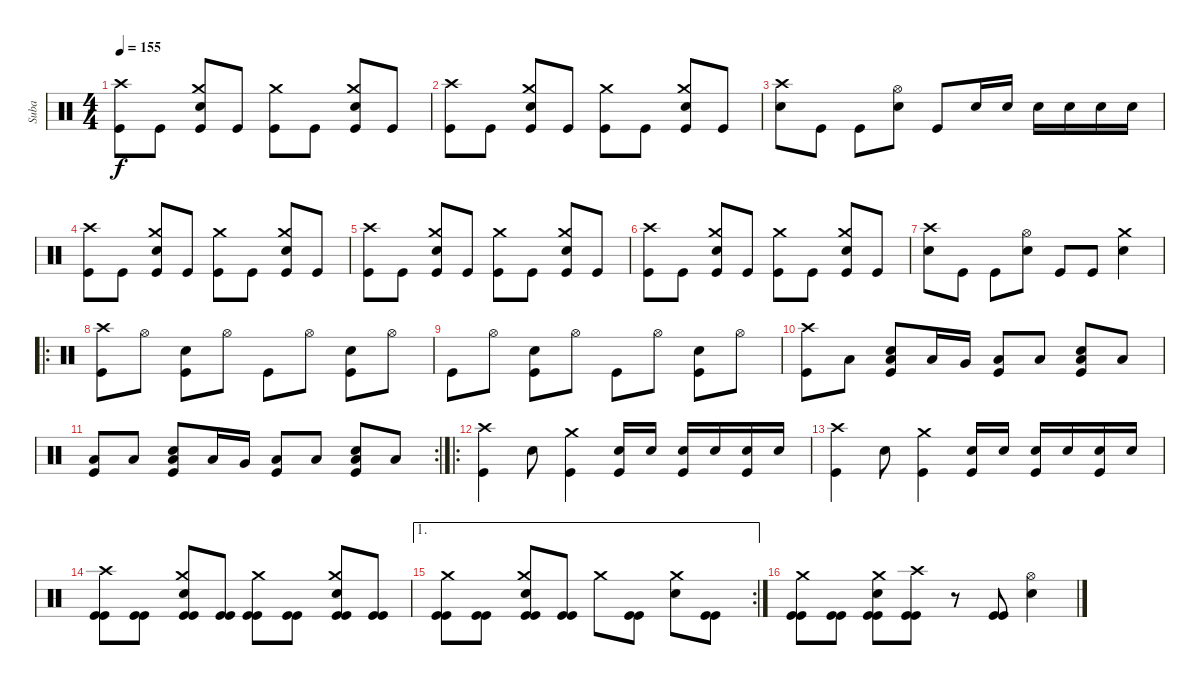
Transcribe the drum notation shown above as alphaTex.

\track ("Suba" "Suba") {instrument percussion}
\staff {score}
\articulation defaults
\ts (4 4)
\tempo 155
\clef neutral
\ks c
("Crash high (hit)" "Kick (hit)").8{dy f} "Kick (hit)".8 ("Crash medium (hit)" "Electric Snare (hit)" "Kick (hit)").8 "Kick (hit)".8 ("Crash medium (hit)" "Kick (hit)").8 "Kick (hit)".8 ("Crash medium (hit)" "Electric Snare (hit)" "Kick (hit)").8 "Kick (hit)".8 |
("Crash high (hit)" "Kick (hit)").8 "Kick (hit)".8 ("Crash medium (hit)" "Electric Snare (hit)" "Kick (hit)").8 "Kick (hit)".8 ("Crash medium (hit)" "Kick (hit)").8 "Kick (hit)".8 ("Crash medium (hit)" "Electric Snare (hit)" "Kick (hit)").8 "Kick (hit)".8 |
("Crash high (hit)" "Electric Snare (hit)").8 "Kick (hit)".8 "Kick (hit)".8 ("Hi-Hat (open)" "Electric Snare (hit)").8 "Kick (hit)".8 "Electric Snare (hit)".16 "Electric Snare (hit)".16 "Electric Snare (hit)".16 "Electric Snare (hit)".16 "Electric Snare (hit)".16 "Electric Snare (hit)".16 |
("Crash high (hit)" "Kick (hit)").8 "Kick (hit)".8 ("Crash medium (hit)" "Electric Snare (hit)" "Kick (hit)").8 "Kick (hit)".8 ("Crash medium (hit)" "Kick (hit)").8 "Kick (hit)".8 ("Crash medium (hit)" "Electric Snare (hit)" "Kick (hit)").8 "Kick (hit)".8 |
("Crash high (hit)" "Kick (hit)").8 "Kick (hit)".8 ("Crash medium (hit)" "Electric Snare (hit)" "Kick (hit)").8 "Kick (hit)".8 ("Crash medium (hit)" "Kick (hit)").8 "Kick (hit)".8 ("Crash medium (hit)" "Electric Snare (hit)" "Kick (hit)").8 "Kick (hit)".8 |
("Crash high (hit)" "Kick (hit)").8 "Kick (hit)".8 ("Crash medium (hit)" "Electric Snare (hit)" "Kick (hit)").8 "Kick (hit)".8 ("Crash medium (hit)" "Kick (hit)").8 "Kick (hit)".8 ("Crash medium (hit)" "Electric Snare (hit)" "Kick (hit)").8 "Kick (hit)".8 |
("Crash high (hit)" "Electric Snare (hit)").8 "Kick (hit)".8 "Kick (hit)".8 ("Hi-Hat (open)" "Electric Snare (hit)").8 "Kick (hit)".8 "Kick (hit)".8 ("Crash medium (hit)" "Electric Snare (hit)").4 |
\ro
("Crash high (hit)" "Kick (hit)").8 "Hi-Hat (open)".8 ("Electric Snare (hit)" "Kick (hit)").8 "Hi-Hat (open)".8 "Kick (hit)".8 "Hi-Hat (open)".8 ("Electric Snare (hit)" "Kick (hit)").8 "Hi-Hat (open)".8 |
"Kick (hit)".8 "Hi-Hat (open)".8 ("Electric Snare (hit)" "Kick (hit)").8 "Hi-Hat (open)".8 "Kick (hit)".8 "Hi-Hat (open)".8 ("Electric Snare (hit)" "Kick (hit)").8 "Hi-Hat (open)".8 |
("Crash high (hit)" "Kick (hit)").8 "Low Floor Tom (hit)".8 ("Low Floor Tom (hit)" "Electric Snare (hit)" "Kick (hit)").8 "Low Floor Tom (hit)".16 "Very Low Tom (hit)".16 ("Low Floor Tom (hit)" "Kick (hit)").8 "Low Floor Tom (hit)".8 ("Low Floor Tom (hit)" "Electric Snare (hit)" "Kick (hit)").8 "Low Floor Tom (hit)".8 |
\rc 2
("Low Floor Tom (hit)" "Kick (hit)").8 "Low Floor Tom (hit)".8 ("Low Floor Tom (hit)" "Electric Snare (hit)" "Kick (hit)").8 "Low Floor Tom (hit)".16 "Very Low Tom (hit)".16 ("Low Floor Tom (hit)" "Kick (hit)").8 "Low Floor Tom (hit)".8 ("Low Floor Tom (hit)" "Electric Snare (hit)" "Kick (hit)").8 "Low Floor Tom (hit)".8 |
\ro
("Crash high (hit)" "Kick (hit)").4 "Electric Snare (hit)".8 ("Crash medium (hit)" "Kick (hit)").4 ("Electric Snare (hit)" "Kick (hit)").16 "Electric Snare (hit)".16 ("Electric Snare (hit)" "Kick (hit)").16 "Electric Snare (hit)".16 ("Electric Snare (hit)" "Kick (hit)").16 "Electric Snare (hit)".16 |
("Crash high (hit)" "Kick (hit)").4 "Electric Snare (hit)".8 ("Crash medium (hit)" "Kick (hit)").4 ("Electric Snare (hit)" "Kick (hit)").16 "Electric Snare (hit)".16 ("Electric Snare (hit)" "Kick (hit)").16 "Electric Snare (hit)".16 ("Electric Snare (hit)" "Kick (hit)").16 "Electric Snare (hit)".16 |
("Crash high (hit)" "Kick (hit)" "Kick (hit)").8 ("Kick (hit)" "Kick (hit)").8 ("Crash medium (hit)" "Kick (hit)" "Electric Snare (hit)" "Kick (hit)").8 ("Kick (hit)" "Kick (hit)").8 ("Crash medium (hit)" "Kick (hit)" "Kick (hit)").8 ("Kick (hit)" "Kick (hit)").8 ("Crash medium (hit)" "Kick (hit)" "Electric Snare (hit)" "Kick (hit)").8 ("Kick (hit)" "Kick (hit)").8 |
\ae 1
\rc 2
("Crash medium (hit)" "Kick (hit)" "Kick (hit)").8 ("Kick (hit)" "Kick (hit)").8 ("Crash medium (hit)" "Kick (hit)" "Electric Snare (hit)" "Kick (hit)").8 ("Kick (hit)" "Kick (hit)").8 "Crash medium (hit)".8 ("Kick (hit)" "Kick (hit)").8 ("Crash medium (hit)" "Electric Snare (hit)").8 ("Kick (hit)" "Kick (hit)").8 |
("Crash medium (hit)" "Kick (hit)" "Kick (hit)").8 ("Kick (hit)" "Kick (hit)").8 ("Crash medium (hit)" "Kick (hit)" "Electric Snare (hit)" "Kick (hit)").8 ("Crash high (hit)" "Kick (hit)" "Kick (hit)").8 r.8 ("Kick (hit)" "Kick (hit)").8 ("Hi-Hat (open)" "Electric Snare (hit)").4
